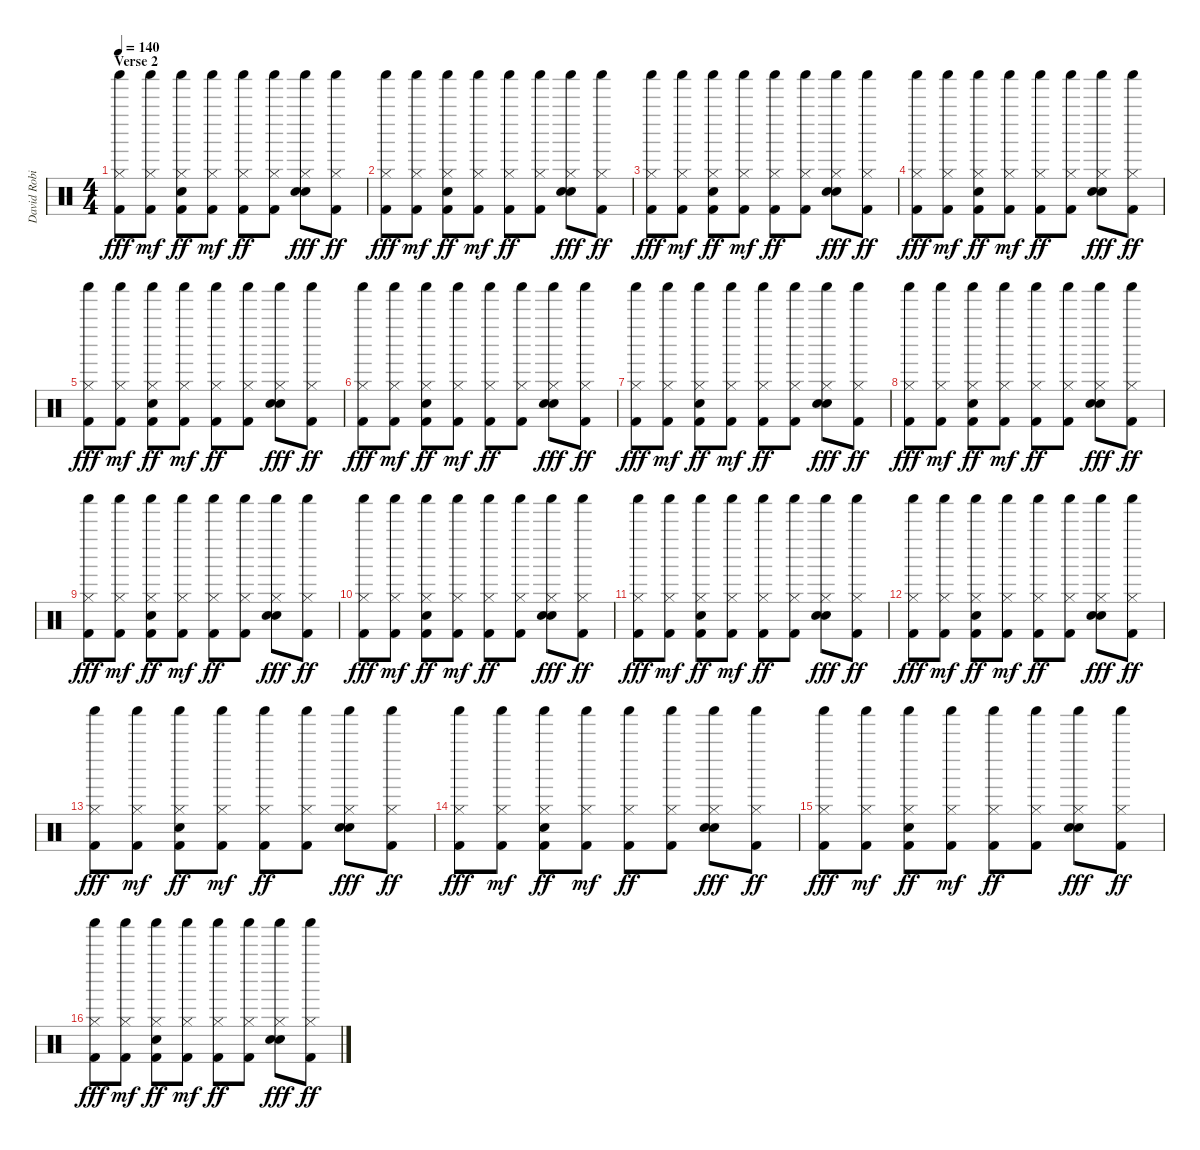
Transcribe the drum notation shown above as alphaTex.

\track ("David Robinson" "David Robi") {instrument percussion}
\staff {score}
\articulation defaults
\ts (4 4)
\section ("" "Verse 2")
\tempo 140
\clef neutral
\ks c
("Shaker (hit)" "Hi-Hat (closed)" "Kick (hit) 2").8{dy fff} ("Shaker (hit)" "Hi-Hat (closed)" "Kick (hit) 2").8{dy mf} ("Shaker (hit)" "Hi-Hat (closed)" "Electric Snare (hit)" "Kick (hit) 2").8{dy ff} ("Shaker (hit)" "Hi-Hat (closed)" "Kick (hit) 2").8{dy mf} ("Shaker (hit)" "Hi-Hat (closed)" "Kick (hit) 2").8{dy ff} ("Shaker (hit)" "Hi-Hat (closed)" "Kick (hit) 2").8 ("Shaker (hit)" "Hi-Hat (closed)" "Electric Snare (hit)" "Snare (hit) 2").8{dy fff} ("Shaker (hit)" "Hi-Hat (closed)" "Kick (hit) 2").8{dy ff} |
("Shaker (hit)" "Hi-Hat (closed)" "Kick (hit) 2").8{dy fff} ("Shaker (hit)" "Hi-Hat (closed)" "Kick (hit) 2").8{dy mf} ("Shaker (hit)" "Hi-Hat (closed)" "Electric Snare (hit)" "Kick (hit) 2").8{dy ff} ("Shaker (hit)" "Hi-Hat (closed)" "Kick (hit) 2").8{dy mf} ("Shaker (hit)" "Hi-Hat (closed)" "Kick (hit) 2").8{dy ff} ("Shaker (hit)" "Hi-Hat (closed)" "Kick (hit) 2").8 ("Shaker (hit)" "Hi-Hat (closed)" "Electric Snare (hit)" "Snare (hit) 2").8{dy fff} ("Shaker (hit)" "Hi-Hat (closed)" "Kick (hit) 2").8{dy ff} |
("Shaker (hit)" "Hi-Hat (closed)" "Kick (hit) 2").8{dy fff} ("Shaker (hit)" "Hi-Hat (closed)" "Kick (hit) 2").8{dy mf} ("Shaker (hit)" "Hi-Hat (closed)" "Electric Snare (hit)" "Kick (hit) 2").8{dy ff} ("Shaker (hit)" "Hi-Hat (closed)" "Kick (hit) 2").8{dy mf} ("Shaker (hit)" "Hi-Hat (closed)" "Kick (hit) 2").8{dy ff} ("Shaker (hit)" "Hi-Hat (closed)" "Kick (hit) 2").8 ("Shaker (hit)" "Hi-Hat (closed)" "Electric Snare (hit)" "Snare (hit) 2").8{dy fff} ("Shaker (hit)" "Hi-Hat (closed)" "Kick (hit) 2").8{dy ff} |
("Shaker (hit)" "Hi-Hat (closed)" "Kick (hit) 2").8{dy fff} ("Shaker (hit)" "Hi-Hat (closed)" "Kick (hit) 2").8{dy mf} ("Shaker (hit)" "Hi-Hat (closed)" "Electric Snare (hit)" "Kick (hit) 2").8{dy ff} ("Shaker (hit)" "Hi-Hat (closed)" "Kick (hit) 2").8{dy mf} ("Shaker (hit)" "Hi-Hat (closed)" "Kick (hit) 2").8{dy ff} ("Shaker (hit)" "Hi-Hat (closed)" "Kick (hit) 2").8 ("Shaker (hit)" "Hi-Hat (closed)" "Electric Snare (hit)" "Snare (hit) 2").8{dy fff} ("Shaker (hit)" "Hi-Hat (closed)" "Kick (hit) 2").8{dy ff} |
("Shaker (hit)" "Hi-Hat (closed)" "Kick (hit) 2").8{dy fff} ("Shaker (hit)" "Hi-Hat (closed)" "Kick (hit) 2").8{dy mf} ("Shaker (hit)" "Hi-Hat (closed)" "Electric Snare (hit)" "Kick (hit) 2").8{dy ff} ("Shaker (hit)" "Hi-Hat (closed)" "Kick (hit) 2").8{dy mf} ("Shaker (hit)" "Hi-Hat (closed)" "Kick (hit) 2").8{dy ff} ("Shaker (hit)" "Hi-Hat (closed)" "Kick (hit) 2").8 ("Shaker (hit)" "Hi-Hat (closed)" "Electric Snare (hit)" "Snare (hit) 2").8{dy fff} ("Shaker (hit)" "Hi-Hat (closed)" "Kick (hit) 2").8{dy ff} |
("Shaker (hit)" "Hi-Hat (closed)" "Kick (hit) 2").8{dy fff} ("Shaker (hit)" "Hi-Hat (closed)" "Kick (hit) 2").8{dy mf} ("Shaker (hit)" "Hi-Hat (closed)" "Electric Snare (hit)" "Kick (hit) 2").8{dy ff} ("Shaker (hit)" "Hi-Hat (closed)" "Kick (hit) 2").8{dy mf} ("Shaker (hit)" "Hi-Hat (closed)" "Kick (hit) 2").8{dy ff} ("Shaker (hit)" "Hi-Hat (closed)" "Kick (hit) 2").8 ("Shaker (hit)" "Hi-Hat (closed)" "Electric Snare (hit)" "Snare (hit) 2").8{dy fff} ("Shaker (hit)" "Hi-Hat (closed)" "Kick (hit) 2").8{dy ff} |
("Shaker (hit)" "Hi-Hat (closed)" "Kick (hit) 2").8{dy fff} ("Shaker (hit)" "Hi-Hat (closed)" "Kick (hit) 2").8{dy mf} ("Shaker (hit)" "Hi-Hat (closed)" "Electric Snare (hit)" "Kick (hit) 2").8{dy ff} ("Shaker (hit)" "Hi-Hat (closed)" "Kick (hit) 2").8{dy mf} ("Shaker (hit)" "Hi-Hat (closed)" "Kick (hit) 2").8{dy ff} ("Shaker (hit)" "Hi-Hat (closed)" "Kick (hit) 2").8 ("Shaker (hit)" "Hi-Hat (closed)" "Electric Snare (hit)" "Snare (hit) 2").8{dy fff} ("Shaker (hit)" "Hi-Hat (closed)" "Kick (hit) 2").8{dy ff} |
("Shaker (hit)" "Hi-Hat (closed)" "Kick (hit) 2").8{dy fff} ("Shaker (hit)" "Hi-Hat (closed)" "Kick (hit) 2").8{dy mf} ("Shaker (hit)" "Hi-Hat (closed)" "Electric Snare (hit)" "Kick (hit) 2").8{dy ff} ("Shaker (hit)" "Hi-Hat (closed)" "Kick (hit) 2").8{dy mf} ("Shaker (hit)" "Hi-Hat (closed)" "Kick (hit) 2").8{dy ff} ("Shaker (hit)" "Hi-Hat (closed)" "Kick (hit) 2").8 ("Shaker (hit)" "Hi-Hat (closed)" "Electric Snare (hit)" "Snare (hit) 2").8{dy fff} ("Shaker (hit)" "Hi-Hat (closed)" "Kick (hit) 2").8{dy ff} |
("Shaker (hit)" "Hi-Hat (closed)" "Kick (hit) 2").8{dy fff} ("Shaker (hit)" "Hi-Hat (closed)" "Kick (hit) 2").8{dy mf} ("Shaker (hit)" "Hi-Hat (closed)" "Electric Snare (hit)" "Kick (hit) 2").8{dy ff} ("Shaker (hit)" "Hi-Hat (closed)" "Kick (hit) 2").8{dy mf} ("Shaker (hit)" "Hi-Hat (closed)" "Kick (hit) 2").8{dy ff} ("Shaker (hit)" "Hi-Hat (closed)" "Kick (hit) 2").8 ("Shaker (hit)" "Hi-Hat (closed)" "Electric Snare (hit)" "Snare (hit) 2").8{dy fff} ("Shaker (hit)" "Hi-Hat (closed)" "Kick (hit) 2").8{dy ff} |
("Shaker (hit)" "Hi-Hat (closed)" "Kick (hit) 2").8{dy fff} ("Shaker (hit)" "Hi-Hat (closed)" "Kick (hit) 2").8{dy mf} ("Shaker (hit)" "Hi-Hat (closed)" "Electric Snare (hit)" "Kick (hit) 2").8{dy ff} ("Shaker (hit)" "Hi-Hat (closed)" "Kick (hit) 2").8{dy mf} ("Shaker (hit)" "Hi-Hat (closed)" "Kick (hit) 2").8{dy ff} ("Shaker (hit)" "Hi-Hat (closed)" "Kick (hit) 2").8 ("Shaker (hit)" "Hi-Hat (closed)" "Electric Snare (hit)" "Snare (hit) 2").8{dy fff} ("Shaker (hit)" "Hi-Hat (closed)" "Kick (hit) 2").8{dy ff} |
("Shaker (hit)" "Hi-Hat (closed)" "Kick (hit) 2").8{dy fff} ("Shaker (hit)" "Hi-Hat (closed)" "Kick (hit) 2").8{dy mf} ("Shaker (hit)" "Hi-Hat (closed)" "Electric Snare (hit)" "Kick (hit) 2").8{dy ff} ("Shaker (hit)" "Hi-Hat (closed)" "Kick (hit) 2").8{dy mf} ("Shaker (hit)" "Hi-Hat (closed)" "Kick (hit) 2").8{dy ff} ("Shaker (hit)" "Hi-Hat (closed)" "Kick (hit) 2").8 ("Shaker (hit)" "Hi-Hat (closed)" "Electric Snare (hit)" "Snare (hit) 2").8{dy fff} ("Shaker (hit)" "Hi-Hat (closed)" "Kick (hit) 2").8{dy ff} |
("Shaker (hit)" "Hi-Hat (closed)" "Kick (hit) 2").8{dy fff} ("Shaker (hit)" "Hi-Hat (closed)" "Kick (hit) 2").8{dy mf} ("Shaker (hit)" "Hi-Hat (closed)" "Electric Snare (hit)" "Kick (hit) 2").8{dy ff} ("Shaker (hit)" "Hi-Hat (closed)" "Kick (hit) 2").8{dy mf} ("Shaker (hit)" "Hi-Hat (closed)" "Kick (hit) 2").8{dy ff} ("Shaker (hit)" "Hi-Hat (closed)" "Kick (hit) 2").8 ("Shaker (hit)" "Hi-Hat (closed)" "Electric Snare (hit)" "Snare (hit) 2").8{dy fff} ("Shaker (hit)" "Hi-Hat (closed)" "Kick (hit) 2").8{dy ff} |
("Shaker (hit)" "Hi-Hat (closed)" "Kick (hit) 2").8{dy fff} ("Shaker (hit)" "Hi-Hat (closed)" "Kick (hit) 2").8{dy mf} ("Shaker (hit)" "Hi-Hat (closed)" "Electric Snare (hit)" "Kick (hit) 2").8{dy ff} ("Shaker (hit)" "Hi-Hat (closed)" "Kick (hit) 2").8{dy mf} ("Shaker (hit)" "Hi-Hat (closed)" "Kick (hit) 2").8{dy ff} ("Shaker (hit)" "Hi-Hat (closed)" "Kick (hit) 2").8 ("Shaker (hit)" "Hi-Hat (closed)" "Electric Snare (hit)" "Snare (hit) 2").8{dy fff} ("Shaker (hit)" "Hi-Hat (closed)" "Kick (hit) 2").8{dy ff} |
("Shaker (hit)" "Hi-Hat (closed)" "Kick (hit) 2").8{dy fff} ("Shaker (hit)" "Hi-Hat (closed)" "Kick (hit) 2").8{dy mf} ("Shaker (hit)" "Hi-Hat (closed)" "Electric Snare (hit)" "Kick (hit) 2").8{dy ff} ("Shaker (hit)" "Hi-Hat (closed)" "Kick (hit) 2").8{dy mf} ("Shaker (hit)" "Hi-Hat (closed)" "Kick (hit) 2").8{dy ff} ("Shaker (hit)" "Hi-Hat (closed)" "Kick (hit) 2").8 ("Shaker (hit)" "Hi-Hat (closed)" "Electric Snare (hit)" "Snare (hit) 2").8{dy fff} ("Shaker (hit)" "Hi-Hat (closed)" "Kick (hit) 2").8{dy ff} |
("Shaker (hit)" "Hi-Hat (closed)" "Kick (hit) 2").8{dy fff} ("Shaker (hit)" "Hi-Hat (closed)" "Kick (hit) 2").8{dy mf} ("Shaker (hit)" "Hi-Hat (closed)" "Electric Snare (hit)" "Kick (hit) 2").8{dy ff} ("Shaker (hit)" "Hi-Hat (closed)" "Kick (hit) 2").8{dy mf} ("Shaker (hit)" "Hi-Hat (closed)" "Kick (hit) 2").8{dy ff} ("Shaker (hit)" "Hi-Hat (closed)" "Kick (hit) 2").8 ("Shaker (hit)" "Hi-Hat (closed)" "Electric Snare (hit)" "Snare (hit) 2").8{dy fff} ("Shaker (hit)" "Hi-Hat (closed)" "Kick (hit) 2").8{dy ff} |
("Shaker (hit)" "Hi-Hat (closed)" "Kick (hit) 2").8{dy fff} ("Shaker (hit)" "Hi-Hat (closed)" "Kick (hit) 2").8{dy mf} ("Shaker (hit)" "Hi-Hat (closed)" "Electric Snare (hit)" "Kick (hit) 2").8{dy ff} ("Shaker (hit)" "Hi-Hat (closed)" "Kick (hit) 2").8{dy mf} ("Shaker (hit)" "Hi-Hat (closed)" "Kick (hit) 2").8{dy ff} ("Shaker (hit)" "Hi-Hat (closed)" "Kick (hit) 2").8 ("Shaker (hit)" "Hi-Hat (closed)" "Electric Snare (hit)" "Snare (hit) 2").8{dy fff} ("Shaker (hit)" "Hi-Hat (closed)" "Kick (hit) 2").8{dy ff}
